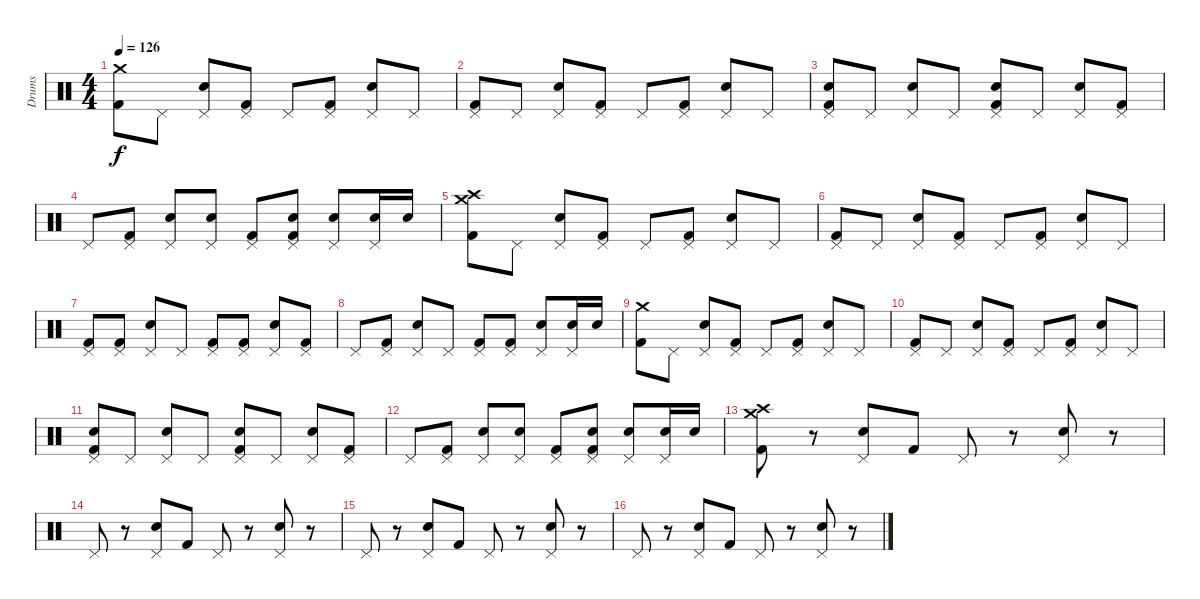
\track ("Drums" "Drums") {instrument percussion}
\staff {score}
\articulation defaults
\ts (4 4)
\tempo 126
\clef neutral
\ks c
("Crash medium (hit)" "Kick (hit) 2").8{dy f} "Pedal Hi-Hat (hit)".8 ("Pedal Hi-Hat (hit)" "Snare (hit) 2").8 ("Pedal Hi-Hat (hit)" "Kick (hit) 2").8 "Pedal Hi-Hat (hit)".8 ("Pedal Hi-Hat (hit)" "Kick (hit) 2").8 ("Pedal Hi-Hat (hit)" "Snare (hit) 2").8 "Pedal Hi-Hat (hit)".8 |
("Pedal Hi-Hat (hit)" "Kick (hit) 2").8 "Pedal Hi-Hat (hit)".8 ("Pedal Hi-Hat (hit)" "Snare (hit) 2").8 ("Pedal Hi-Hat (hit)" "Kick (hit) 2").8 "Pedal Hi-Hat (hit)".8 ("Pedal Hi-Hat (hit)" "Kick (hit) 2").8 ("Pedal Hi-Hat (hit)" "Snare (hit) 2").8 "Pedal Hi-Hat (hit)".8 |
("Pedal Hi-Hat (hit)" "Snare (hit) 2" "Kick (hit) 2").8 "Pedal Hi-Hat (hit)".8 ("Pedal Hi-Hat (hit)" "Snare (hit) 2").8 "Pedal Hi-Hat (hit)".8 ("Pedal Hi-Hat (hit)" "Snare (hit) 2" "Kick (hit) 2").8 "Pedal Hi-Hat (hit)".8 ("Pedal Hi-Hat (hit)" "Snare (hit) 2").8 ("Pedal Hi-Hat (hit)" "Kick (hit) 2").8 |
"Pedal Hi-Hat (hit)".8 ("Pedal Hi-Hat (hit)" "Kick (hit) 2").8 ("Pedal Hi-Hat (hit)" "Snare (hit) 2").8 ("Pedal Hi-Hat (hit)" "Snare (hit) 2").8 ("Pedal Hi-Hat (hit)" "Kick (hit) 2").8 ("Pedal Hi-Hat (hit)" "Snare (hit) 2" "Kick (hit) 2").8 ("Pedal Hi-Hat (hit)" "Snare (hit) 2").8 ("Pedal Hi-Hat (hit)" "Snare (hit) 2").16 "Snare (hit) 2".16 |
("Crash medium (hit)" "Crash high (hit)" "Kick (hit) 2").8 "Pedal Hi-Hat (hit)".8 ("Pedal Hi-Hat (hit)" "Snare (hit) 2").8 ("Pedal Hi-Hat (hit)" "Kick (hit) 2").8 "Pedal Hi-Hat (hit)".8 ("Pedal Hi-Hat (hit)" "Kick (hit) 2").8 ("Pedal Hi-Hat (hit)" "Snare (hit) 2").8 "Pedal Hi-Hat (hit)".8 |
("Pedal Hi-Hat (hit)" "Kick (hit) 2").8 "Pedal Hi-Hat (hit)".8 ("Pedal Hi-Hat (hit)" "Snare (hit) 2").8 ("Pedal Hi-Hat (hit)" "Kick (hit) 2").8 "Pedal Hi-Hat (hit)".8 ("Pedal Hi-Hat (hit)" "Kick (hit) 2").8 ("Pedal Hi-Hat (hit)" "Snare (hit) 2").8 "Pedal Hi-Hat (hit)".8 |
("Pedal Hi-Hat (hit)" "Kick (hit) 2").8 ("Pedal Hi-Hat (hit)" "Kick (hit) 2").8 ("Pedal Hi-Hat (hit)" "Snare (hit) 2").8 "Pedal Hi-Hat (hit)".8 ("Pedal Hi-Hat (hit)" "Kick (hit) 2").8 ("Pedal Hi-Hat (hit)" "Kick (hit) 2").8 ("Pedal Hi-Hat (hit)" "Snare (hit) 2").8 ("Pedal Hi-Hat (hit)" "Kick (hit) 2").8 |
"Pedal Hi-Hat (hit)".8 ("Pedal Hi-Hat (hit)" "Kick (hit) 2").8 ("Pedal Hi-Hat (hit)" "Snare (hit) 2").8 "Pedal Hi-Hat (hit)".8 ("Pedal Hi-Hat (hit)" "Kick (hit) 2").8 ("Pedal Hi-Hat (hit)" "Kick (hit) 2").8 ("Pedal Hi-Hat (hit)" "Snare (hit) 2").8 ("Pedal Hi-Hat (hit)" "Snare (hit) 2").16 "Snare (hit) 2".16 |
("Crash medium (hit)" "Kick (hit) 2").8 "Pedal Hi-Hat (hit)".8 ("Pedal Hi-Hat (hit)" "Snare (hit) 2").8 ("Pedal Hi-Hat (hit)" "Kick (hit) 2").8 "Pedal Hi-Hat (hit)".8 ("Pedal Hi-Hat (hit)" "Kick (hit) 2").8 ("Pedal Hi-Hat (hit)" "Snare (hit) 2").8 "Pedal Hi-Hat (hit)".8 |
("Pedal Hi-Hat (hit)" "Kick (hit) 2").8 "Pedal Hi-Hat (hit)".8 ("Pedal Hi-Hat (hit)" "Snare (hit) 2").8 ("Pedal Hi-Hat (hit)" "Kick (hit) 2").8 "Pedal Hi-Hat (hit)".8 ("Pedal Hi-Hat (hit)" "Kick (hit) 2").8 ("Pedal Hi-Hat (hit)" "Snare (hit) 2").8 "Pedal Hi-Hat (hit)".8 |
("Pedal Hi-Hat (hit)" "Snare (hit) 2" "Kick (hit) 2").8 "Pedal Hi-Hat (hit)".8 ("Pedal Hi-Hat (hit)" "Snare (hit) 2").8 "Pedal Hi-Hat (hit)".8 ("Pedal Hi-Hat (hit)" "Snare (hit) 2" "Kick (hit) 2").8 "Pedal Hi-Hat (hit)".8 ("Pedal Hi-Hat (hit)" "Snare (hit) 2").8 ("Pedal Hi-Hat (hit)" "Kick (hit) 2").8 |
"Pedal Hi-Hat (hit)".8 ("Pedal Hi-Hat (hit)" "Kick (hit) 2").8 ("Pedal Hi-Hat (hit)" "Snare (hit) 2").8 ("Pedal Hi-Hat (hit)" "Snare (hit) 2").8 ("Pedal Hi-Hat (hit)" "Kick (hit) 2").8 ("Pedal Hi-Hat (hit)" "Snare (hit) 2" "Kick (hit) 2").8 ("Pedal Hi-Hat (hit)" "Snare (hit) 2").8 ("Pedal Hi-Hat (hit)" "Snare (hit) 2").16 "Snare (hit) 2".16 |
("Crash medium (hit)" "Crash high (hit)" "Kick (hit) 2").8 r.8 ("Pedal Hi-Hat (hit)" "Snare (hit) 2").8 "Kick (hit) 2".8 "Pedal Hi-Hat (hit)".8 r.8 ("Pedal Hi-Hat (hit)" "Snare (hit) 2").8 r.8 |
"Pedal Hi-Hat (hit)".8 r.8 ("Pedal Hi-Hat (hit)" "Snare (hit) 2").8 "Kick (hit) 2".8 "Pedal Hi-Hat (hit)".8 r.8 ("Pedal Hi-Hat (hit)" "Snare (hit) 2").8 r.8 |
"Pedal Hi-Hat (hit)".8 r.8 ("Pedal Hi-Hat (hit)" "Snare (hit) 2").8 "Kick (hit) 2".8 "Pedal Hi-Hat (hit)".8 r.8 ("Pedal Hi-Hat (hit)" "Snare (hit) 2").8 r.8 |
"Pedal Hi-Hat (hit)".8 r.8 ("Pedal Hi-Hat (hit)" "Snare (hit) 2").8 "Kick (hit) 2".8 "Pedal Hi-Hat (hit)".8 r.8 ("Pedal Hi-Hat (hit)" "Snare (hit) 2").8 r.8
